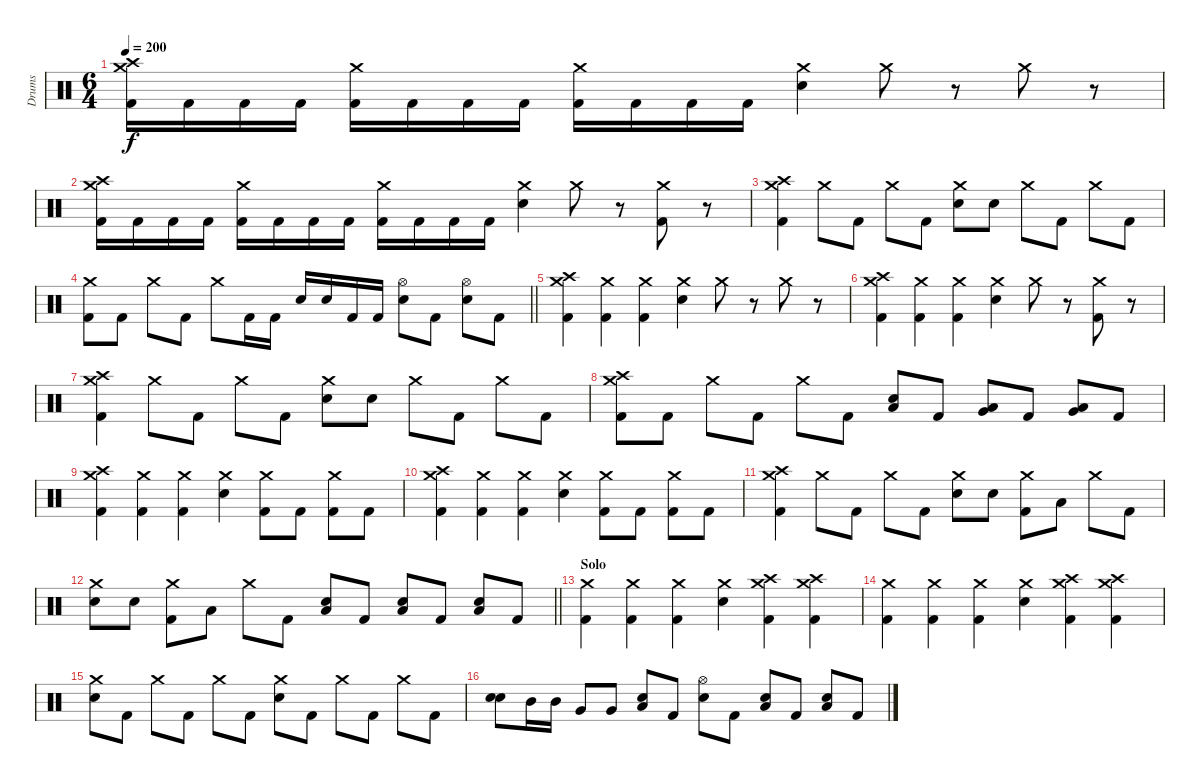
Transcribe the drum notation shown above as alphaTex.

\track ("Drums" "Drums") {instrument percussion}
\staff {score}
\articulation defaults
\ts (6 4)
\tempo 200
\clef neutral
\ks c
("Crash medium (hit)" "Crash high (hit)" "Kick (hit) 2").16{dy f} "Kick (hit) 2".16 "Kick (hit) 2".16 "Kick (hit) 2".16 ("Crash medium (hit)" "Kick (hit) 2").16 "Kick (hit) 2".16 "Kick (hit) 2".16 "Kick (hit) 2".16 ("Crash medium (hit)" "Kick (hit) 2").16 "Kick (hit) 2".16 "Kick (hit) 2".16 "Kick (hit) 2".16 ("Crash medium (hit)" "Electric Snare (hit)").4 "Crash medium (hit)".8 r.8 "Crash medium (hit)".8 r.8 |
("Crash medium (hit)" "Crash high (hit)" "Kick (hit) 2").16 "Kick (hit) 2".16 "Kick (hit) 2".16 "Kick (hit) 2".16 ("Crash medium (hit)" "Kick (hit) 2").16 "Kick (hit) 2".16 "Kick (hit) 2".16 "Kick (hit) 2".16 ("Crash medium (hit)" "Kick (hit) 2").16 "Kick (hit) 2".16 "Kick (hit) 2".16 "Kick (hit) 2".16 ("Crash medium (hit)" "Electric Snare (hit)").4 "Crash medium (hit)".8 r.8 ("Crash medium (hit)" "Kick (hit) 2").8 r.8 |
("Crash medium (hit)" "Crash high (hit)" "Kick (hit) 2").4 "Crash medium (hit)".8 "Kick (hit) 2".8 "Crash medium (hit)".8 "Kick (hit) 2".8 ("Crash medium (hit)" "Electric Snare (hit)").8 "Electric Snare (hit)".8 "Crash medium (hit)".8 "Kick (hit) 2".8 "Crash medium (hit)".8 "Kick (hit) 2".8 |
\barLineRight lightlight
("Crash medium (hit)" "Kick (hit) 2").8 "Kick (hit) 2".8 "Crash medium (hit)".8 "Kick (hit) 2".8 "Crash medium (hit)".8 "Kick (hit) 2".16 "Kick (hit) 2".16 "Electric Snare (hit)".16 "Electric Snare (hit)".16 "Kick (hit) 2".16 "Kick (hit) 2".16 ("Hi-Hat (open)" "Electric Snare (hit)").8 "Kick (hit) 2".8 ("Hi-Hat (open)" "Electric Snare (hit)").8 "Kick (hit) 2".8 |
("Crash medium (hit)" "Crash high (hit)" "Kick (hit) 2").4 ("Crash medium (hit)" "Kick (hit) 2").4 ("Crash medium (hit)" "Kick (hit) 2").4 ("Crash medium (hit)" "Electric Snare (hit)").4 "Crash medium (hit)".8 r.8 "Crash medium (hit)".8 r.8 |
("Crash medium (hit)" "Crash high (hit)" "Kick (hit) 2").4 ("Crash medium (hit)" "Kick (hit) 2").4 ("Crash medium (hit)" "Kick (hit) 2").4 ("Crash medium (hit)" "Electric Snare (hit)").4 "Crash medium (hit)".8 r.8 ("Crash medium (hit)" "Kick (hit) 2").8 r.8 |
("Crash medium (hit)" "Crash high (hit)" "Kick (hit) 2").4 "Crash medium (hit)".8 "Kick (hit) 2".8 "Crash medium (hit)".8 "Kick (hit) 2".8 ("Crash medium (hit)" "Electric Snare (hit)").8 "Electric Snare (hit)".8 "Crash medium (hit)".8 "Kick (hit) 2".8 "Crash medium (hit)".8 "Kick (hit) 2".8 |
("Crash medium (hit)" "Crash high (hit)" "Kick (hit) 2").8 "Kick (hit) 2".8 "Crash medium (hit)".8 "Kick (hit) 2".8 "Crash medium (hit)".8 "Kick (hit) 2".8 ("Low Floor Tom (hit)" "Electric Snare (hit)").8 "Kick (hit) 2".8 ("Low Tom (hit)" "Very Low Tom (hit)").8 "Kick (hit) 2".8 ("Very Low Tom (hit)" "Low Floor Tom (hit)").8 "Kick (hit) 2".8 |
("Crash medium (hit)" "Crash high (hit)" "Kick (hit) 2").4 ("Crash medium (hit)" "Kick (hit) 2").4 ("Crash medium (hit)" "Kick (hit) 2").4 ("Crash medium (hit)" "Electric Snare (hit)").4 ("Crash medium (hit)" "Kick (hit) 2").8 "Kick (hit) 2".8 ("Crash medium (hit)" "Kick (hit) 2").8 "Kick (hit) 2".8 |
("Crash medium (hit)" "Crash high (hit)" "Kick (hit) 2").4 ("Crash medium (hit)" "Kick (hit) 2").4 ("Crash medium (hit)" "Kick (hit) 2").4 ("Crash medium (hit)" "Electric Snare (hit)").4 ("Crash medium (hit)" "Kick (hit) 2").8 "Kick (hit) 2".8 ("Crash medium (hit)" "Kick (hit) 2").8 "Kick (hit) 2".8 |
("Crash medium (hit)" "Crash high (hit)" "Kick (hit) 2").4 "Crash medium (hit)".8 "Kick (hit) 2".8 "Crash medium (hit)".8 "Kick (hit) 2".8 ("Crash medium (hit)" "Electric Snare (hit)").8 "Electric Snare (hit)".8 ("Crash medium (hit)" "Kick (hit) 2").8 "Low Tom (hit)".8 "Crash medium (hit)".8 "Kick (hit) 2".8 |
\barLineRight lightlight
("Crash medium (hit)" "Electric Snare (hit)").8 "Electric Snare (hit)".8 ("Crash medium (hit)" "Kick (hit) 2").8 "Low Tom (hit)".8 "Crash medium (hit)".8 "Kick (hit) 2".8 ("Low Floor Tom (hit)" "Electric Snare (hit)").8 "Kick (hit) 2".8 ("Low Floor Tom (hit)" "Electric Snare (hit)").8 "Kick (hit) 2".8 ("Low Floor Tom (hit)" "Electric Snare (hit)").8 "Kick (hit) 2".8 |
\section ("" "Solo")
("Crash medium (hit)" "Kick (hit) 2").4 ("Crash medium (hit)" "Kick (hit) 2").4 ("Crash medium (hit)" "Kick (hit) 2").4 ("Crash medium (hit)" "Electric Snare (hit)").4 ("Crash medium (hit)" "Crash high (hit)" "Kick (hit) 2").4 ("Crash medium (hit)" "Crash high (hit)" "Kick (hit) 2").4 |
("Crash medium (hit)" "Kick (hit) 2").4 ("Crash medium (hit)" "Kick (hit) 2").4 ("Crash medium (hit)" "Kick (hit) 2").4 ("Crash medium (hit)" "Electric Snare (hit)").4 ("Crash medium (hit)" "Crash high (hit)" "Kick (hit) 2").4 ("Crash medium (hit)" "Crash high (hit)" "Kick (hit) 2").4 |
("Crash medium (hit)" "Electric Snare (hit)").8 "Kick (hit) 2".8 "Crash medium (hit)".8 "Kick (hit) 2".8 "Crash medium (hit)".8 "Kick (hit) 2".8 ("Crash medium (hit)" "Electric Snare (hit)").8 "Kick (hit) 2".8 "Crash medium (hit)".8 "Kick (hit) 2".8 "Crash medium (hit)".8 "Kick (hit) 2".8 |
("Electric Snare (hit)" "Electric Snare (hit)").8 "Mid Tom (hit)".16 "Mid Tom (hit)".16 "Very Low Tom (hit)".8 "Very Low Tom (hit)".8 ("Low Floor Tom (hit)" "Electric Snare (hit)").8 "Kick (hit) 2".8 ("Hi-Hat (open)" "Electric Snare (hit)").8 "Kick (hit) 2".8 ("Low Floor Tom (hit)" "Electric Snare (hit)").8 "Kick (hit) 2".8 ("Low Floor Tom (hit)" "Electric Snare (hit)").8 "Kick (hit) 2".8
